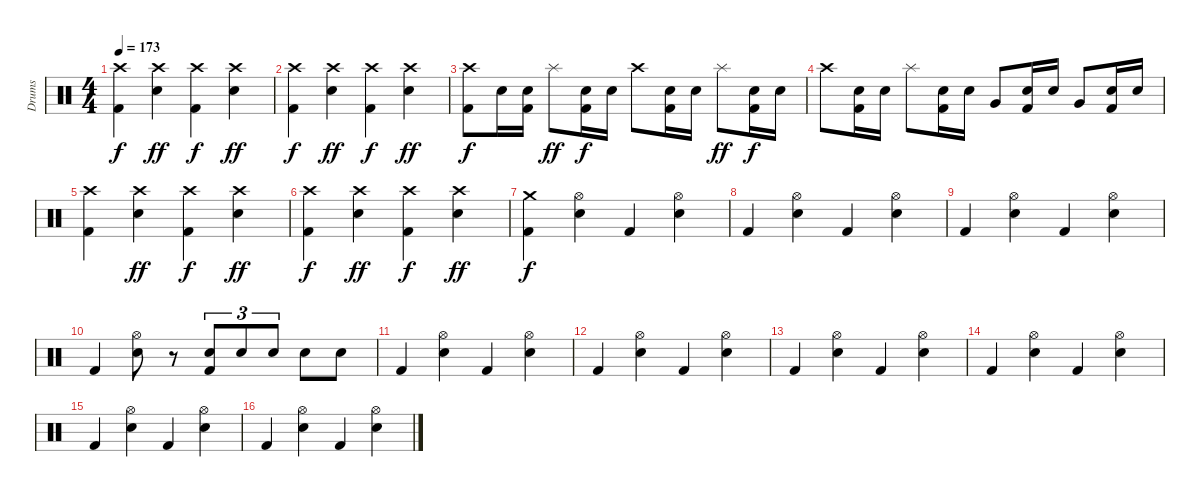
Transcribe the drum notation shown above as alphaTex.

\track ("Drums" "Drums") {instrument percussion}
\staff {score}
\articulation defaults
\ts (4 4)
\tempo 173
\clef neutral
\ks c
("Crash high (hit)" "Kick (hit) 2").4{dy f} ("Crash high (hit)" "Electric Snare (hit)").4{dy ff} ("Crash high (hit)" "Kick (hit) 2").4{dy f} ("Crash high (hit)" "Electric Snare (hit)").4{dy ff} |
("Crash high (hit)" "Kick (hit) 2").4{dy f} ("Crash high (hit)" "Electric Snare (hit)").4{dy ff} ("Crash high (hit)" "Kick (hit) 2").4{dy f} ("Crash high (hit)" "Electric Snare (hit)").4{dy ff} |
("Crash high (hit)" "Kick (hit) 2").8{dy f} "Electric Snare (hit)".16 ("Electric Snare (hit)" "Kick (hit) 2").16 "Splash (hit)".8{dy ff} ("Electric Snare (hit)" "Kick (hit) 2").16{dy f} "Electric Snare (hit)".16 "Crash high (hit)".8 ("Electric Snare (hit)" "Kick (hit) 2").16 "Electric Snare (hit)".16 "Splash (hit)".8{dy ff} ("Electric Snare (hit)" "Kick (hit) 2").16{dy f} "Electric Snare (hit)".16 |
"Crash high (hit)".8 ("Electric Snare (hit)" "Kick (hit) 2").16 "Electric Snare (hit)".16 "Splash (hit)".8 ("Electric Snare (hit)" "Kick (hit) 2").16 "Electric Snare (hit)".16 "Very Low Tom (hit)".8 ("Electric Snare (hit)" "Kick (hit) 2").16 "Electric Snare (hit)".16 "Very Low Tom (hit)".8 ("Electric Snare (hit)" "Kick (hit) 2").16 "Electric Snare (hit)".16 |
("Crash high (hit)" "Kick (hit) 2").4 ("Crash high (hit)" "Electric Snare (hit)").4{dy ff} ("Crash high (hit)" "Kick (hit) 2").4{dy f} ("Crash high (hit)" "Electric Snare (hit)").4{dy ff} |
("Crash high (hit)" "Kick (hit) 2").4{dy f} ("Crash high (hit)" "Electric Snare (hit)").4{dy ff} ("Crash high (hit)" "Kick (hit) 2").4{dy f} ("Crash high (hit)" "Electric Snare (hit)").4{dy ff} |
("Kick (hit) 2" "Crash medium (hit)").4{dy f} ("Electric Snare (hit)" "Hi-Hat (open)").4 "Kick (hit) 2".4 ("Electric Snare (hit)" "Hi-Hat (open)").4 |
"Kick (hit) 2".4 ("Electric Snare (hit)" "Hi-Hat (open)").4 "Kick (hit) 2".4 ("Electric Snare (hit)" "Hi-Hat (open)").4 |
"Kick (hit) 2".4 ("Electric Snare (hit)" "Hi-Hat (open)").4 "Kick (hit) 2".4 ("Electric Snare (hit)" "Hi-Hat (open)").4 |
"Kick (hit) 2".4 ("Hi-Hat (open)" "Electric Snare (hit)").8 r.8 ("Electric Snare (hit)" "Kick (hit) 2").8{tu (3 2)} "Electric Snare (hit)".8{tu (3 2)} "Electric Snare (hit)".8{tu (3 2)} "Electric Snare (hit)".8 "Electric Snare (hit)".8 |
"Kick (hit) 2".4 ("Electric Snare (hit)" "Hi-Hat (open)").4 "Kick (hit) 2".4 ("Electric Snare (hit)" "Hi-Hat (open)").4 |
"Kick (hit) 2".4 ("Electric Snare (hit)" "Hi-Hat (open)").4 "Kick (hit) 2".4 ("Electric Snare (hit)" "Hi-Hat (open)").4 |
"Kick (hit) 2".4 ("Electric Snare (hit)" "Hi-Hat (open)").4 "Kick (hit) 2".4 ("Electric Snare (hit)" "Hi-Hat (open)").4 |
"Kick (hit) 2".4 ("Electric Snare (hit)" "Hi-Hat (open)").4 "Kick (hit) 2".4 ("Electric Snare (hit)" "Hi-Hat (open)").4 |
"Kick (hit) 2".4 ("Electric Snare (hit)" "Hi-Hat (open)").4 "Kick (hit) 2".4 ("Electric Snare (hit)" "Hi-Hat (open)").4 |
"Kick (hit) 2".4 ("Electric Snare (hit)" "Hi-Hat (open)").4 "Kick (hit) 2".4 ("Electric Snare (hit)" "Hi-Hat (open)").4
